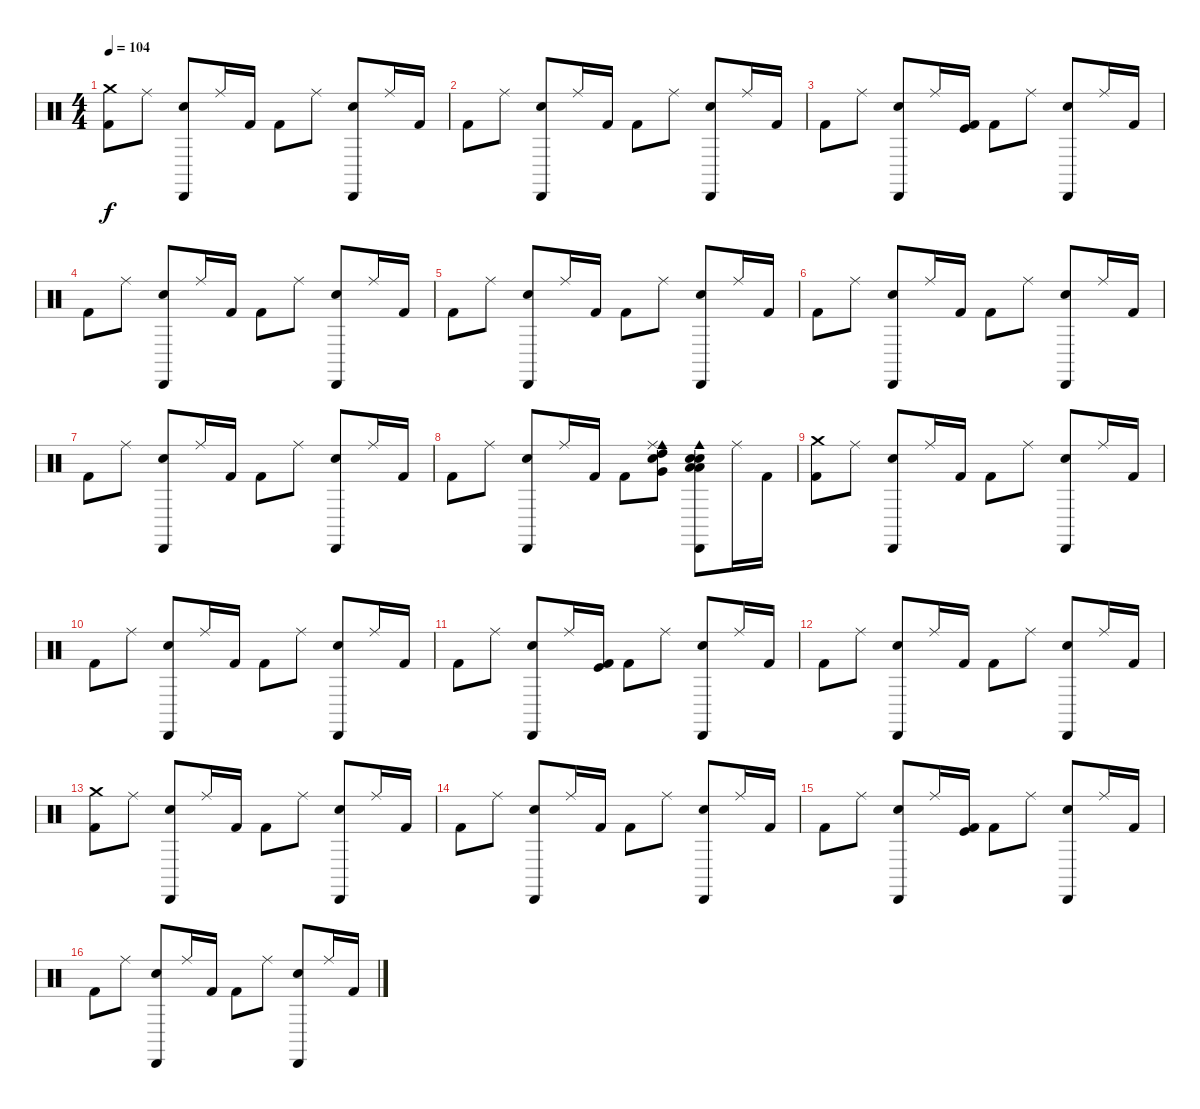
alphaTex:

\track "" {instrument percussion}
\staff {score}
\articulation defaults
\ts (4 4)
\tempo 104
\clef neutral
\ks c
("Crash medium (hit)" "Kick (hit) 2").8{dy f} "Ride (middle)".8 ("Hand Clap (hit)" "Cabasa (hit)").8 "Ride (middle)".16 "Kick (hit) 2".16 "Kick (hit) 2".8 "Ride (middle)".8 ("Hand Clap (hit)" "Cabasa (hit)").8 "Ride (middle)".16 "Kick (hit) 2".16 |
"Kick (hit) 2".8 "Ride (middle)".8 ("Hand Clap (hit)" "Cabasa (hit)").8 "Ride (middle)".16 "Kick (hit) 2".16 "Kick (hit) 2".8 "Ride (middle)".8 ("Hand Clap (hit)" "Cabasa (hit)").8 "Ride (middle)".16 "Kick (hit) 2".16 |
"Kick (hit) 2".8 "Ride (middle)".8 ("Hand Clap (hit)" "Cabasa (hit)").8 "Ride (middle)".16 ("Kick (hit) 2" "Kick (hit)").16 "Kick (hit) 2".8 "Ride (middle)".8 ("Hand Clap (hit)" "Cabasa (hit)").8 "Ride (middle)".16 "Kick (hit) 2".16 |
"Kick (hit) 2".8 "Ride (middle)".8 ("Cabasa (hit)" "Hand Clap (hit)").8 "Ride (middle)".16 "Kick (hit) 2".16 "Kick (hit) 2".8 "Ride (middle)".8 ("Cabasa (hit)" "Hand Clap (hit)").8 "Ride (middle)".16 "Kick (hit) 2".16 |
"Kick (hit) 2".8 "Ride (middle)".8 ("Cabasa (hit)" "Hand Clap (hit)").8 "Ride (middle)".16 "Kick (hit) 2".16 "Kick (hit) 2".8 "Ride (middle)".8 ("Cabasa (hit)" "Hand Clap (hit)").8 "Ride (middle)".16 "Kick (hit) 2".16 |
"Kick (hit) 2".8 "Ride (middle)".8 ("Cabasa (hit)" "Hand Clap (hit)").8 "Ride (middle)".16 "Kick (hit) 2".16 "Kick (hit) 2".8 "Ride (middle)".8 ("Cabasa (hit)" "Hand Clap (hit)").8 "Ride (middle)".16 "Kick (hit) 2".16 |
"Kick (hit) 2".8 "Ride (middle)".8 ("Cabasa (hit)" "Hand Clap (hit)").8 "Ride (middle)".16 "Kick (hit) 2".16 "Kick (hit) 2".8 "Ride (middle)".8 ("Cabasa (hit)" "Hand Clap (hit)").8 "Ride (middle)".16 "Kick (hit) 2".16 |
"Kick (hit) 2".8 "Ride (middle)".8 ("Cabasa (hit)" "Hand Clap (hit)").8 "Ride (middle)".16 "Kick (hit) 2".16 "Kick (hit) 2".8 ("Very Low Tom (hit)" "Electric Snare (hit)" "Cowbell medium (hit)" "High Tom (hit)" "Ride (middle)").8 ("Snare (hit) 2" "Low Floor Tom (hit)" "Low Tom (hit)" "Cowbell medium (hit)" "Cabasa (hit)" "Hand Clap (hit)").8 "Ride (middle)".16 "Kick (hit) 2".16 |
("Crash medium (hit)" "Kick (hit) 2").8 "Ride (middle)".8 ("Hand Clap (hit)" "Cabasa (hit)").8 "Ride (middle)".16 "Kick (hit) 2".16 "Kick (hit) 2".8 "Ride (middle)".8 ("Hand Clap (hit)" "Cabasa (hit)").8 "Ride (middle)".16 "Kick (hit) 2".16 |
"Kick (hit) 2".8 "Ride (middle)".8 ("Hand Clap (hit)" "Cabasa (hit)").8 "Ride (middle)".16 "Kick (hit) 2".16 "Kick (hit) 2".8 "Ride (middle)".8 ("Hand Clap (hit)" "Cabasa (hit)").8 "Ride (middle)".16 "Kick (hit) 2".16 |
"Kick (hit) 2".8 "Ride (middle)".8 ("Hand Clap (hit)" "Cabasa (hit)").8 "Ride (middle)".16 ("Kick (hit) 2" "Kick (hit)").16 "Kick (hit) 2".8 "Ride (middle)".8 ("Hand Clap (hit)" "Cabasa (hit)").8 "Ride (middle)".16 "Kick (hit) 2".16 |
"Kick (hit) 2".8 "Ride (middle)".8 ("Cabasa (hit)" "Hand Clap (hit)").8 "Ride (middle)".16 "Kick (hit) 2".16 "Kick (hit) 2".8 "Ride (middle)".8 ("Cabasa (hit)" "Hand Clap (hit)").8 "Ride (middle)".16 "Kick (hit) 2".16 |
("Crash medium (hit)" "Kick (hit) 2").8 "Ride (middle)".8 ("Hand Clap (hit)" "Cabasa (hit)").8 "Ride (middle)".16 "Kick (hit) 2".16 "Kick (hit) 2".8 "Ride (middle)".8 ("Hand Clap (hit)" "Cabasa (hit)").8 "Ride (middle)".16 "Kick (hit) 2".16 |
"Kick (hit) 2".8 "Ride (middle)".8 ("Hand Clap (hit)" "Cabasa (hit)").8 "Ride (middle)".16 "Kick (hit) 2".16 "Kick (hit) 2".8 "Ride (middle)".8 ("Hand Clap (hit)" "Cabasa (hit)").8 "Ride (middle)".16 "Kick (hit) 2".16 |
"Kick (hit) 2".8 "Ride (middle)".8 ("Hand Clap (hit)" "Cabasa (hit)").8 "Ride (middle)".16 ("Kick (hit) 2" "Kick (hit)").16 "Kick (hit) 2".8 "Ride (middle)".8 ("Hand Clap (hit)" "Cabasa (hit)").8 "Ride (middle)".16 "Kick (hit) 2".16 |
"Kick (hit) 2".8 "Ride (middle)".8 ("Cabasa (hit)" "Hand Clap (hit)").8 "Ride (middle)".16 "Kick (hit) 2".16 "Kick (hit) 2".8 "Ride (middle)".8 ("Cabasa (hit)" "Hand Clap (hit)").8 "Ride (middle)".16 "Kick (hit) 2".16
